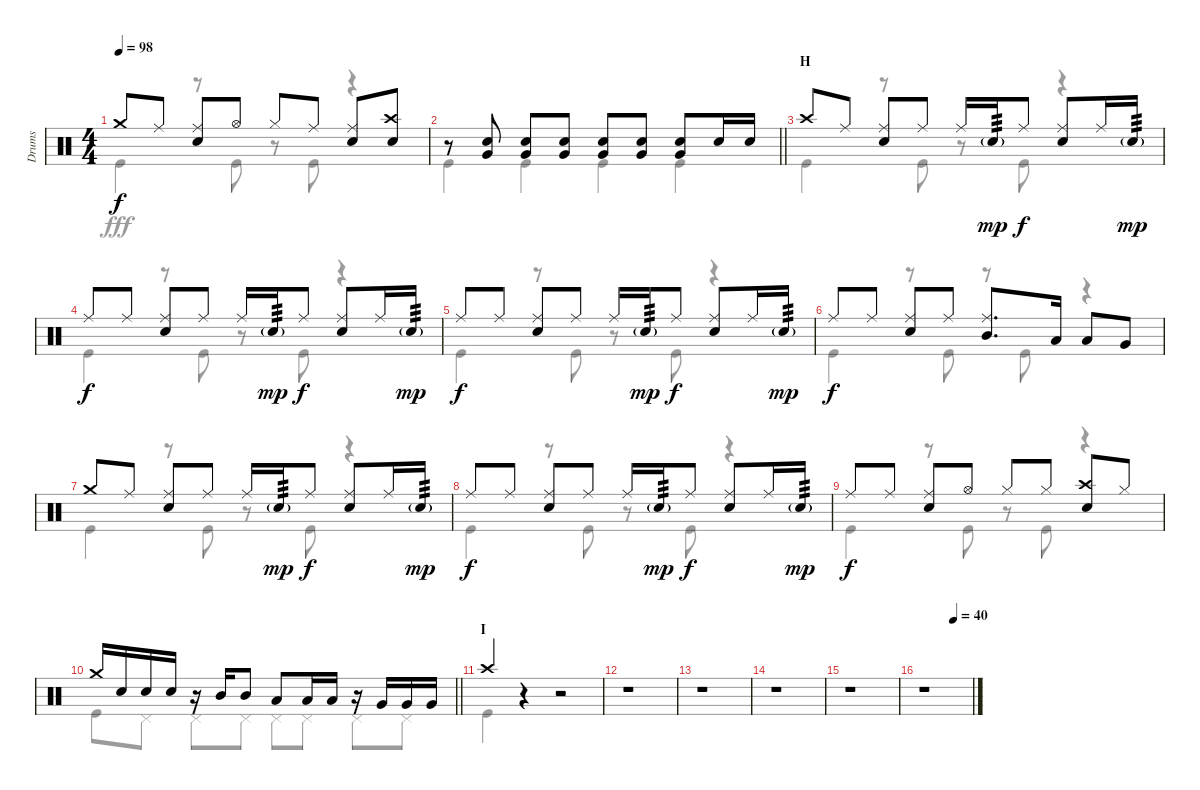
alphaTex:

\track ("Drums" "Drums") {instrument percussion}
\staff {score}
\articulation defaults
\voice
\ts (4 4)
\tempo 98
\clef neutral
\ks c "Crash medium (hit)".8{dy f} "Ride (middle)".8
("Ride (middle)" "Snare (hit) 2").8 "Hi-Hat (open)".8 "Hi-Hat (closed)".8 "Ride (middle)".8 ("Ride (middle)" "Snare (hit) 2").8 ("Crash high (hit)" "Snare (hit) 2").8 |
\barLineRight lightlight
r.8 ("Snare (hit) 2" "Very Low Tom (hit)").8 ("Snare (hit) 2" "Very Low Tom (hit)").8 ("Snare (hit) 2" "Very Low Tom (hit)").8 ("Snare (hit) 2" "Very Low Tom (hit)").8 ("Snare (hit) 2" "Very Low Tom (hit)").8 ("Snare (hit) 2" "Very Low Tom (hit)").8 "Snare (hit) 2".16 "Snare (hit) 2".16 |
\section ("" "H")
"Crash high (hit)".8 "Ride (middle)".8 ("Ride (middle)" "Snare (hit) 2").8 "Ride (middle)".8 "Ride (middle)".16 "Snare (hit) 2"{g}.16{tp 3 dy mp} "Ride (middle)".8{dy f} ("Ride (middle)" "Snare (hit) 2").8 "Ride (middle)".16 "Snare (hit) 2"{g}.16{tp 3 dy mp} |
"Ride (middle)".8{dy f} "Ride (middle)".8 ("Ride (middle)" "Snare (hit) 2").8 "Ride (middle)".8 "Ride (middle)".16 "Snare (hit) 2"{g}.16{tp 3 dy mp} "Ride (middle)".8{dy f} ("Ride (middle)" "Snare (hit) 2").8 "Ride (middle)".16 "Snare (hit) 2"{g}.16{tp 3 dy mp} |
"Ride (middle)".8{dy f} "Ride (middle)".8 ("Ride (middle)" "Snare (hit) 2").8 "Ride (middle)".8 "Ride (middle)".16 "Snare (hit) 2"{g}.16{tp 3 dy mp} "Ride (middle)".8{dy f} ("Ride (middle)" "Snare (hit) 2").8 "Ride (middle)".16 "Snare (hit) 2"{g}.16{tp 3 dy mp} |
"Ride (middle)".8{dy f} "Ride (middle)".8 ("Ride (middle)" "Snare (hit) 2").8 "Ride (middle)".8 ("Ride (middle)" "Mid Tom (hit)").8{d} "Low Tom (hit)".16 "Low Tom (hit)".8 "Very Low Tom (hit)".8 |
"Crash medium (hit)".8 "Ride (middle)".8 ("Ride (middle)" "Snare (hit) 2").8 "Ride (middle)".8 "Ride (middle)".16 "Snare (hit) 2"{g}.16{tp 3 dy mp} "Ride (middle)".8{dy f} ("Ride (middle)" "Snare (hit) 2").8 "Ride (middle)".16 "Snare (hit) 2"{g}.16{tp 3 dy mp} |
"Ride (middle)".8{dy f} "Ride (middle)".8 ("Ride (middle)" "Snare (hit) 2").8 "Ride (middle)".8 "Ride (middle)".16 "Snare (hit) 2"{g}.16{tp 3 dy mp} "Ride (middle)".8{dy f} ("Ride (middle)" "Snare (hit) 2").8 "Ride (middle)".16 "Snare (hit) 2"{g}.16{tp 3 dy mp} |
"Ride (middle)".8{dy f} "Ride (middle)".8 ("Ride (middle)" "Snare (hit) 2").8 "Hi-Hat (open)".8 "Hi-Hat (closed)".8 "Hi-Hat (closed)".8 ("Crash high (hit)" "Snare (hit) 2").8 "Hi-Hat (closed)".8 |
\barLineRight lightlight "Crash medium (hit)".16 "Snare (hit) 2".16 "Snare (hit) 2".16 "Snare (hit) 2".16
r.16 "Mid Tom (hit)".16 "Mid Tom (hit)".8 "Low Tom (hit)".8 "Low Tom (hit)".16 "Low Tom (hit)".16 r.16 "Very Low Tom (hit)".16 "Very Low Tom (hit)".16 "Very Low Tom (hit)".16 |
\section ("" "I")
"Crash high (hit)".4 r.4 r.2 |
r.1 |
r.1 |
r.1 |
r.1 |
\tempo (40 0.625)
r.1
\voice
\clef neutral
\ottava regular
\simile none
\ks c "Kick (hit)".4{dy fff}
r.8 "Kick (hit)".8 r.8 "Kick (hit)".8 r.4 |
\barLineRight lightlight "Kick (hit)".4 "Kick (hit)".4 "Kick (hit)".4 "Kick (hit)".4
|
"Kick (hit)".4 r.8 "Kick (hit)".8 r.8 "Kick (hit)".8 r.4 |
"Kick (hit)".4 r.8 "Kick (hit)".8 r.8 "Kick (hit)".8 r.4 |
"Kick (hit)".4 r.8 "Kick (hit)".8 r.8 "Kick (hit)".8 r.4 |
"Kick (hit)".4 r.8 "Kick (hit)".8 r.8 "Kick (hit)".8 r.4 |
"Kick (hit)".4 r.8 "Kick (hit)".8 r.8 "Kick (hit)".8 r.4 |
"Kick (hit)".4 r.8 "Kick (hit)".8 r.8 "Kick (hit)".8 r.4 |
"Kick (hit)".4 r.8 "Kick (hit)".8 r.8 "Kick (hit)".8 r.4 |
\barLineRight lightlight "Kick (hit)".8 "Pedal Hi-Hat (hit)".8 "Pedal Hi-Hat (hit)".8 "Pedal Hi-Hat (hit)".8 "Pedal Hi-Hat (hit)".8 "Pedal Hi-Hat (hit)".8 "Pedal Hi-Hat (hit)".8 "Pedal Hi-Hat (hit)".8
|
"Kick (hit)".4 r.4 r.2 |
r.1 |
r.1 |
r.1 |
r.1 |
r.1
